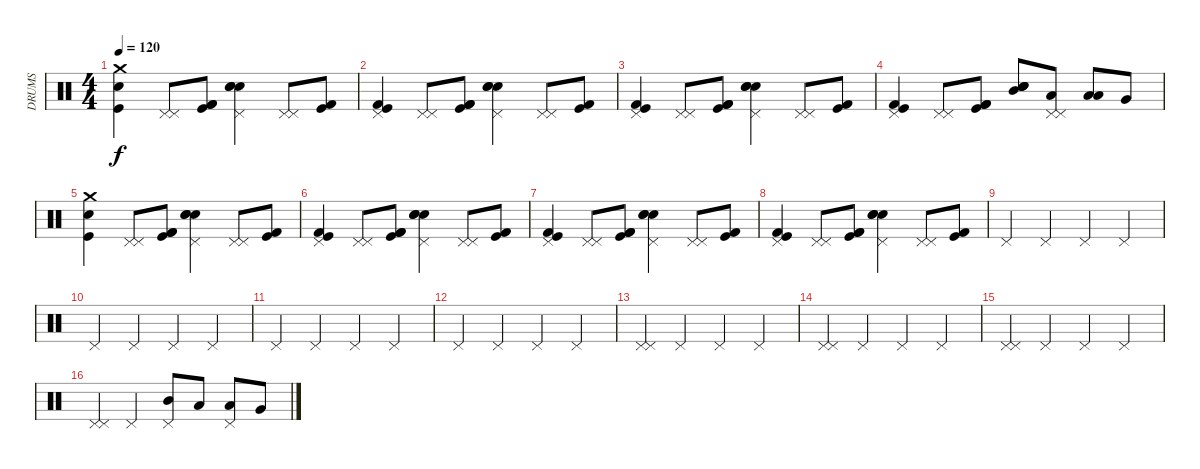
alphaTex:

\track ("DRUMS" "DRUMS") {instrument percussion}
\staff {score}
\articulation defaults
\ts (4 4)
\tempo 120
\clef neutral
\ks c
("Crash medium (hit)" "Snare (hit) 2" "Kick (hit)").4{dy f} ("Pedal Hi-Hat (hit)" "Pedal Hi-Hat (hit)").8 ("Kick (hit) 2" "Kick (hit)" "Kick (hit) 2").8 ("Snare (hit) 2" "Snare (hit) 2" "Pedal Hi-Hat (hit)" "Electric Snare (hit)").4 ("Pedal Hi-Hat (hit)" "Pedal Hi-Hat (hit)").8 ("Kick (hit)" "Kick (hit) 2").8 |
("Pedal Hi-Hat (hit)" "Kick (hit) 2" "Kick (hit)").4 ("Pedal Hi-Hat (hit)" "Pedal Hi-Hat (hit)").8 ("Kick (hit) 2" "Kick (hit)" "Kick (hit) 2").8 ("Snare (hit) 2" "Snare (hit) 2" "Pedal Hi-Hat (hit)" "Electric Snare (hit)").4 ("Pedal Hi-Hat (hit)" "Pedal Hi-Hat (hit)").8 ("Kick (hit)" "Kick (hit) 2").8 |
("Pedal Hi-Hat (hit)" "Kick (hit) 2" "Kick (hit)").4 ("Pedal Hi-Hat (hit)" "Pedal Hi-Hat (hit)").8 ("Kick (hit) 2" "Kick (hit)" "Kick (hit) 2").8 ("Snare (hit) 2" "Snare (hit) 2" "Pedal Hi-Hat (hit)" "Electric Snare (hit)").4 ("Pedal Hi-Hat (hit)" "Pedal Hi-Hat (hit)").8 ("Kick (hit)" "Kick (hit) 2").8 |
("Pedal Hi-Hat (hit)" "Kick (hit) 2" "Kick (hit)").4 ("Pedal Hi-Hat (hit)" "Pedal Hi-Hat (hit)").8 ("Kick (hit) 2" "Kick (hit)" "Kick (hit) 2").8 ("Snare (hit) 2" "Snare (hit) 2" "Mid Tom (hit)" "Electric Snare (hit)").8 ("Pedal Hi-Hat (hit)" "Pedal Hi-Hat (hit)" "Low Tom (hit)").8 ("Low Floor Tom (hit)" "Low Floor Tom (hit)").8 "Very Low Tom (hit)".8 |
("Crash medium (hit)" "Snare (hit) 2" "Kick (hit)").4 ("Pedal Hi-Hat (hit)" "Pedal Hi-Hat (hit)").8 ("Kick (hit) 2" "Kick (hit)" "Kick (hit) 2").8 ("Snare (hit) 2" "Snare (hit) 2" "Pedal Hi-Hat (hit)" "Electric Snare (hit)").4 ("Pedal Hi-Hat (hit)" "Pedal Hi-Hat (hit)").8 ("Kick (hit)" "Kick (hit) 2").8 |
("Pedal Hi-Hat (hit)" "Kick (hit) 2" "Kick (hit)").4 ("Pedal Hi-Hat (hit)" "Pedal Hi-Hat (hit)").8 ("Kick (hit) 2" "Kick (hit)" "Kick (hit) 2").8 ("Snare (hit) 2" "Snare (hit) 2" "Pedal Hi-Hat (hit)" "Electric Snare (hit)").4 ("Pedal Hi-Hat (hit)" "Pedal Hi-Hat (hit)").8 ("Kick (hit)" "Kick (hit) 2").8 |
("Pedal Hi-Hat (hit)" "Kick (hit) 2" "Kick (hit)").4 ("Pedal Hi-Hat (hit)" "Pedal Hi-Hat (hit)").8 ("Kick (hit) 2" "Kick (hit)" "Kick (hit) 2").8 ("Snare (hit) 2" "Snare (hit) 2" "Pedal Hi-Hat (hit)" "Electric Snare (hit)").4 ("Pedal Hi-Hat (hit)" "Pedal Hi-Hat (hit)").8 ("Kick (hit)" "Kick (hit) 2").8 |
("Pedal Hi-Hat (hit)" "Kick (hit) 2" "Kick (hit)").4 ("Pedal Hi-Hat (hit)" "Pedal Hi-Hat (hit)").8 ("Kick (hit) 2" "Kick (hit)" "Kick (hit) 2").8 ("Snare (hit) 2" "Snare (hit) 2" "Pedal Hi-Hat (hit)" "Electric Snare (hit)").4 ("Pedal Hi-Hat (hit)" "Pedal Hi-Hat (hit)").8 ("Kick (hit)" "Kick (hit) 2").8 |
"Pedal Hi-Hat (hit)".4 "Pedal Hi-Hat (hit)".4 "Pedal Hi-Hat (hit)".4 "Pedal Hi-Hat (hit)".4 |
"Pedal Hi-Hat (hit)".4 "Pedal Hi-Hat (hit)".4 "Pedal Hi-Hat (hit)".4 "Pedal Hi-Hat (hit)".4 |
"Pedal Hi-Hat (hit)".4 "Pedal Hi-Hat (hit)".4 "Pedal Hi-Hat (hit)".4 "Pedal Hi-Hat (hit)".4 |
"Pedal Hi-Hat (hit)".4 "Pedal Hi-Hat (hit)".4 "Pedal Hi-Hat (hit)".4 "Pedal Hi-Hat (hit)".4 |
("Pedal Hi-Hat (hit)" "Pedal Hi-Hat (hit)").4 "Pedal Hi-Hat (hit)".4 "Pedal Hi-Hat (hit)".4 "Pedal Hi-Hat (hit)".4 |
("Pedal Hi-Hat (hit)" "Pedal Hi-Hat (hit)").4 "Pedal Hi-Hat (hit)".4 "Pedal Hi-Hat (hit)".4 "Pedal Hi-Hat (hit)".4 |
("Pedal Hi-Hat (hit)" "Pedal Hi-Hat (hit)").4 "Pedal Hi-Hat (hit)".4 "Pedal Hi-Hat (hit)".4 "Pedal Hi-Hat (hit)".4 |
("Pedal Hi-Hat (hit)" "Pedal Hi-Hat (hit)").4 "Pedal Hi-Hat (hit)".4 ("Pedal Hi-Hat (hit)" "Mid Tom (hit)").8 "Low Tom (hit)".8 ("Low Floor Tom (hit)" "Pedal Hi-Hat (hit)").8 "Very Low Tom (hit)".8
